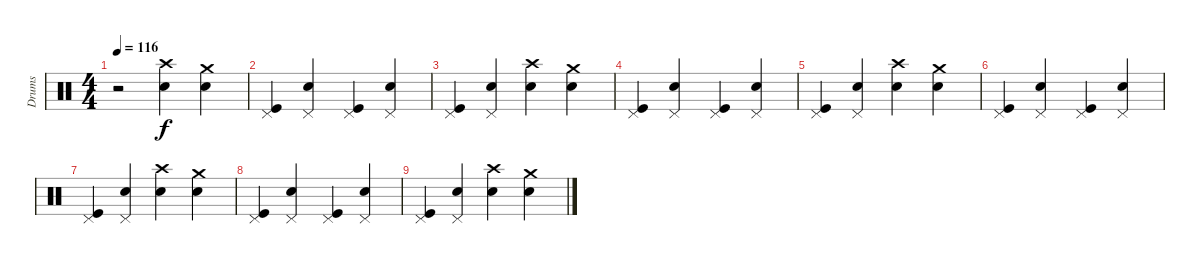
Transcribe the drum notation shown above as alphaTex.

\track ("Drums" "Drums") {instrument percussion}
\staff {score}
\articulation defaults
\ts (4 4)
\tempo 116
\clef neutral
\ks c
r.2{dy f} ("Electric Snare (hit)" "Crash high (hit)").4 ("Crash medium (hit)" "Electric Snare (hit)").4 |
("Pedal Hi-Hat (hit)" "Kick (hit)").4 ("Pedal Hi-Hat (hit)" "Electric Snare (hit)").4 ("Pedal Hi-Hat (hit)" "Kick (hit)").4 ("Pedal Hi-Hat (hit)" "Electric Snare (hit)").4 |
("Pedal Hi-Hat (hit)" "Kick (hit)").4 ("Pedal Hi-Hat (hit)" "Electric Snare (hit)").4 ("Electric Snare (hit)" "Crash high (hit)").4 ("Crash medium (hit)" "Electric Snare (hit)").4 |
("Pedal Hi-Hat (hit)" "Kick (hit)").4 ("Pedal Hi-Hat (hit)" "Electric Snare (hit)").4 ("Pedal Hi-Hat (hit)" "Kick (hit)").4 ("Pedal Hi-Hat (hit)" "Electric Snare (hit)").4 |
("Pedal Hi-Hat (hit)" "Kick (hit)").4 ("Pedal Hi-Hat (hit)" "Electric Snare (hit)").4 ("Electric Snare (hit)" "Crash high (hit)").4 ("Crash medium (hit)" "Electric Snare (hit)").4 |
("Pedal Hi-Hat (hit)" "Kick (hit)").4 ("Pedal Hi-Hat (hit)" "Electric Snare (hit)").4 ("Pedal Hi-Hat (hit)" "Kick (hit)").4 ("Pedal Hi-Hat (hit)" "Electric Snare (hit)").4 |
("Pedal Hi-Hat (hit)" "Kick (hit)").4 ("Pedal Hi-Hat (hit)" "Electric Snare (hit)").4 ("Electric Snare (hit)" "Crash high (hit)").4 ("Crash medium (hit)" "Electric Snare (hit)").4 |
("Pedal Hi-Hat (hit)" "Kick (hit)").4 ("Pedal Hi-Hat (hit)" "Electric Snare (hit)").4 ("Pedal Hi-Hat (hit)" "Kick (hit)").4 ("Pedal Hi-Hat (hit)" "Electric Snare (hit)").4 |
("Pedal Hi-Hat (hit)" "Kick (hit)").4 ("Pedal Hi-Hat (hit)" "Electric Snare (hit)").4 ("Electric Snare (hit)" "Crash high (hit)").4 ("Crash medium (hit)" "Electric Snare (hit)").4
